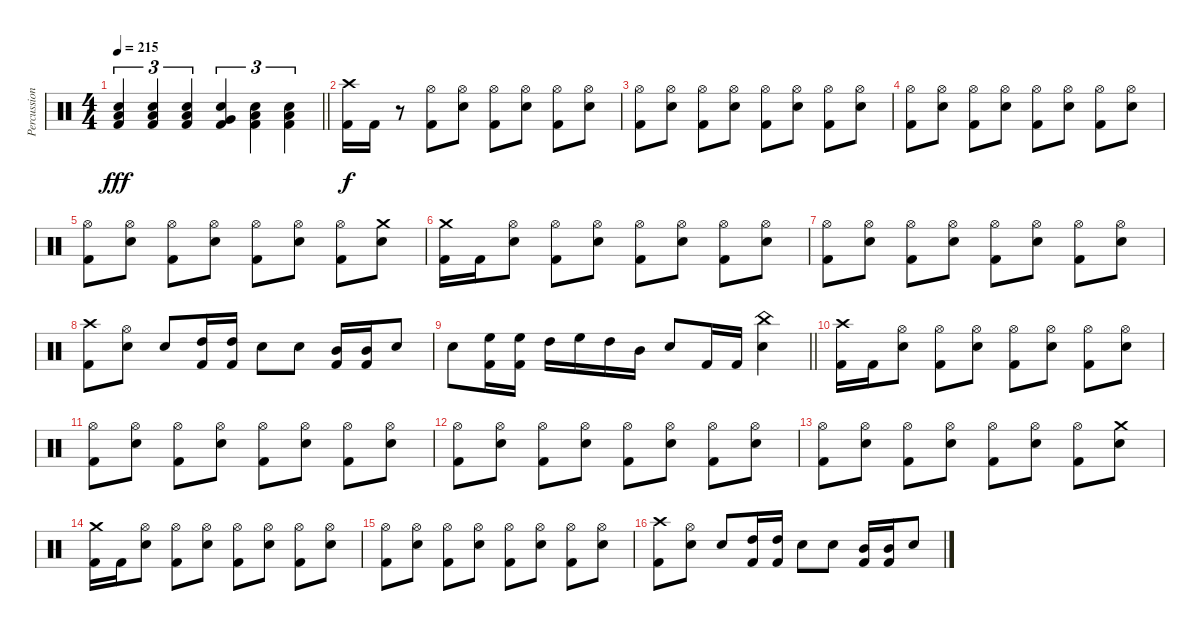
\track ("Percussions" "Percussion") {instrument percussion}
\staff {score}
\articulation defaults
\ts (4 4)
\tempo 215
\clef neutral
\barLineRight lightlight
\ks c
("Electric Snare (hit)" "Low Tom (hit)" "Kick (hit) 2").4{tu (3 2) dy fff} ("Electric Snare (hit)" "Low Tom (hit)" "Kick (hit) 2").4{tu (3 2)} ("Electric Snare (hit)" "Low Tom (hit)" "Kick (hit) 2").4{tu (3 2)} ("Electric Snare (hit)" "Very Low Tom (hit)" "Kick (hit) 2").4{tu (3 2)} ("Electric Snare (hit)" "Low Floor Tom (hit)" "Kick (hit) 2").4{tu (3 2)} ("Electric Snare (hit)" "Low Floor Tom (hit)" "Kick (hit) 2").4{tu (3 2)} |
\section ("" "")
("Crash high (hit)" "Kick (hit) 2").16{dy f} "Kick (hit) 2".16 r.8 ("Hi-Hat (open)" "Kick (hit) 2").8 ("Hi-Hat (open)" "Electric Snare (hit)").8 ("Hi-Hat (open)" "Kick (hit) 2").8 ("Hi-Hat (open)" "Electric Snare (hit)").8 ("Hi-Hat (open)" "Kick (hit) 2").8 ("Hi-Hat (open)" "Electric Snare (hit)").8 |
("Hi-Hat (open)" "Kick (hit) 2").8 ("Hi-Hat (open)" "Electric Snare (hit)").8 ("Hi-Hat (open)" "Kick (hit) 2").8 ("Hi-Hat (open)" "Electric Snare (hit)").8 ("Hi-Hat (open)" "Kick (hit) 2").8 ("Hi-Hat (open)" "Electric Snare (hit)").8 ("Hi-Hat (open)" "Kick (hit) 2").8 ("Hi-Hat (open)" "Electric Snare (hit)").8 |
("Hi-Hat (open)" "Kick (hit) 2").8 ("Hi-Hat (open)" "Electric Snare (hit)").8 ("Hi-Hat (open)" "Kick (hit) 2").8 ("Hi-Hat (open)" "Electric Snare (hit)").8 ("Hi-Hat (open)" "Kick (hit) 2").8 ("Hi-Hat (open)" "Electric Snare (hit)").8 ("Hi-Hat (open)" "Kick (hit) 2").8 ("Hi-Hat (open)" "Electric Snare (hit)").8 |
("Hi-Hat (open)" "Kick (hit) 2").8 ("Hi-Hat (open)" "Electric Snare (hit)").8 ("Hi-Hat (open)" "Kick (hit) 2").8 ("Hi-Hat (open)" "Electric Snare (hit)").8 ("Hi-Hat (open)" "Kick (hit) 2").8 ("Hi-Hat (open)" "Electric Snare (hit)").8 ("Hi-Hat (open)" "Kick (hit) 2").8 ("Crash medium (hit)" "Electric Snare (hit)").8 |
("Crash medium (hit)" "Kick (hit) 2").16 "Kick (hit) 2".16 ("Hi-Hat (open)" "Electric Snare (hit)").8 ("Hi-Hat (open)" "Kick (hit) 2").8 ("Hi-Hat (open)" "Electric Snare (hit)").8 ("Hi-Hat (open)" "Kick (hit) 2").8 ("Hi-Hat (open)" "Electric Snare (hit)").8 ("Hi-Hat (open)" "Kick (hit) 2").8 ("Hi-Hat (open)" "Electric Snare (hit)").8 |
("Hi-Hat (open)" "Kick (hit) 2").8 ("Hi-Hat (open)" "Electric Snare (hit)").8 ("Hi-Hat (open)" "Kick (hit) 2").8 ("Hi-Hat (open)" "Electric Snare (hit)").8 ("Hi-Hat (open)" "Kick (hit) 2").8 ("Hi-Hat (open)" "Electric Snare (hit)").8 ("Hi-Hat (open)" "Kick (hit) 2").8 ("Hi-Hat (open)" "Electric Snare (hit)").8 |
("Crash high (hit)" "Kick (hit) 2").8 ("Hi-Hat (open)" "Electric Snare (hit)").8 "Electric Snare (hit)".8 ("High Tom (hit)" "Kick (hit) 2").16 ("High Tom (hit)" "Kick (hit) 2").16 "Electric Snare (hit)".8 "Electric Snare (hit)".8 ("Mid Tom (hit)" "Kick (hit) 2").16 ("Mid Tom (hit)" "Kick (hit) 2").16 "Electric Snare (hit)".8 |
\barLineRight lightlight "Electric Snare (hit)".8
("High Floor Tom (hit)" "Kick (hit) 2").16 ("High Floor Tom (hit)" "Kick (hit) 2").16 "High Tom (hit)".16 "High Floor Tom (hit)".16 "High Tom (hit)".16 "Mid Tom (hit)".16 "Electric Snare (hit)".8 "Kick (hit) 2".16 "Kick (hit) 2".16 ("China (hit)" "Electric Snare (hit)").4 |
\section ("" "")
("Crash high (hit)" "Kick (hit) 2").16 "Kick (hit) 2".16 ("Hi-Hat (open)" "Electric Snare (hit)").8 ("Hi-Hat (open)" "Kick (hit) 2").8 ("Hi-Hat (open)" "Electric Snare (hit)").8 ("Hi-Hat (open)" "Kick (hit) 2").8 ("Hi-Hat (open)" "Electric Snare (hit)").8 ("Hi-Hat (open)" "Kick (hit) 2").8 ("Hi-Hat (open)" "Electric Snare (hit)").8 |
("Hi-Hat (open)" "Kick (hit) 2").8 ("Hi-Hat (open)" "Electric Snare (hit)").8 ("Hi-Hat (open)" "Kick (hit) 2").8 ("Hi-Hat (open)" "Electric Snare (hit)").8 ("Hi-Hat (open)" "Kick (hit) 2").8 ("Hi-Hat (open)" "Electric Snare (hit)").8 ("Hi-Hat (open)" "Kick (hit) 2").8 ("Hi-Hat (open)" "Electric Snare (hit)").8 |
("Hi-Hat (open)" "Kick (hit) 2").8 ("Hi-Hat (open)" "Electric Snare (hit)").8 ("Hi-Hat (open)" "Kick (hit) 2").8 ("Hi-Hat (open)" "Electric Snare (hit)").8 ("Hi-Hat (open)" "Kick (hit) 2").8 ("Hi-Hat (open)" "Electric Snare (hit)").8 ("Hi-Hat (open)" "Kick (hit) 2").8 ("Hi-Hat (open)" "Electric Snare (hit)").8 |
("Hi-Hat (open)" "Kick (hit) 2").8 ("Hi-Hat (open)" "Electric Snare (hit)").8 ("Hi-Hat (open)" "Kick (hit) 2").8 ("Hi-Hat (open)" "Electric Snare (hit)").8 ("Hi-Hat (open)" "Kick (hit) 2").8 ("Hi-Hat (open)" "Electric Snare (hit)").8 ("Hi-Hat (open)" "Kick (hit) 2").8 ("Crash medium (hit)" "Electric Snare (hit)").8 |
("Crash medium (hit)" "Kick (hit) 2").16 "Kick (hit) 2".16 ("Hi-Hat (open)" "Electric Snare (hit)").8 ("Hi-Hat (open)" "Kick (hit) 2").8 ("Hi-Hat (open)" "Electric Snare (hit)").8 ("Hi-Hat (open)" "Kick (hit) 2").8 ("Hi-Hat (open)" "Electric Snare (hit)").8 ("Hi-Hat (open)" "Kick (hit) 2").8 ("Hi-Hat (open)" "Electric Snare (hit)").8 |
("Hi-Hat (open)" "Kick (hit) 2").8 ("Hi-Hat (open)" "Electric Snare (hit)").8 ("Hi-Hat (open)" "Kick (hit) 2").8 ("Hi-Hat (open)" "Electric Snare (hit)").8 ("Hi-Hat (open)" "Kick (hit) 2").8 ("Hi-Hat (open)" "Electric Snare (hit)").8 ("Hi-Hat (open)" "Kick (hit) 2").8 ("Hi-Hat (open)" "Electric Snare (hit)").8 |
("Crash high (hit)" "Kick (hit) 2").8 ("Hi-Hat (open)" "Electric Snare (hit)").8 "Electric Snare (hit)".8 ("High Tom (hit)" "Kick (hit) 2").16 ("High Tom (hit)" "Kick (hit) 2").16 "Electric Snare (hit)".8 "Electric Snare (hit)".8 ("Mid Tom (hit)" "Kick (hit) 2").16 ("Mid Tom (hit)" "Kick (hit) 2").16 "Electric Snare (hit)".8
